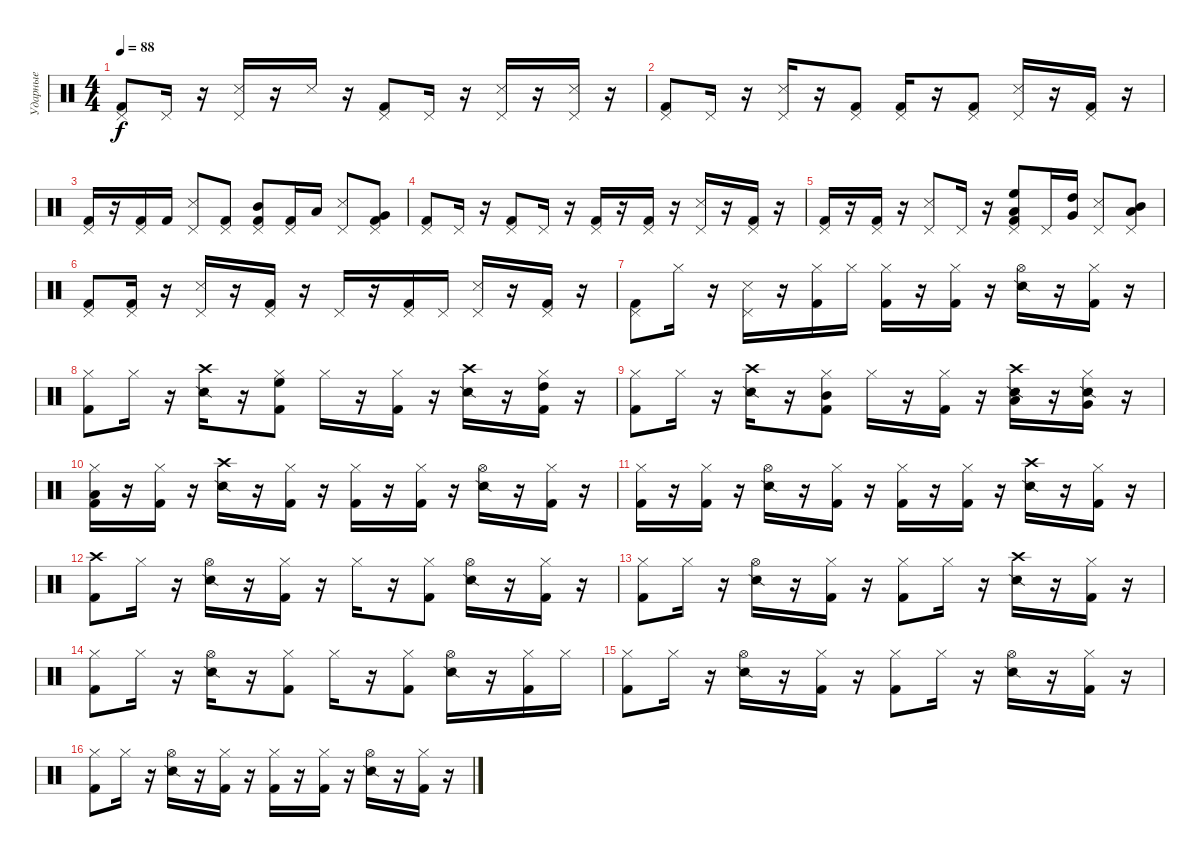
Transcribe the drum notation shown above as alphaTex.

\track ("Ударные" "Ударные") {instrument percussion}
\staff {score}
\articulation defaults
\ts (4 4)
\tempo 88
\clef neutral
\ks c
("Pedal Hi-Hat (hit)" "Kick (hit) 2").8{dy f} "Pedal Hi-Hat (hit)".16 r.16 ("Pedal Hi-Hat (hit)" "Snare (side stick) 3").16 r.16 "Snare (side stick) 3".16 r.16 ("Pedal Hi-Hat (hit)" "Kick (hit) 2").8 "Pedal Hi-Hat (hit)".16 r.16 ("Pedal Hi-Hat (hit)" "Snare (side stick) 3").16 r.16 ("Pedal Hi-Hat (hit)" "Snare (side stick) 3").16 r.16 |
("Kick (hit) 2" "Pedal Hi-Hat (hit)").8 "Pedal Hi-Hat (hit)".16 r.16 ("Pedal Hi-Hat (hit)" "Snare (side stick) 3").16 r.16 ("Pedal Hi-Hat (hit)" "Kick (hit) 2").8 ("Pedal Hi-Hat (hit)" "Kick (hit) 2").16 r.16 ("Kick (hit) 2" "Pedal Hi-Hat (hit)").8 ("Pedal Hi-Hat (hit)" "Snare (side stick) 3").16 r.16 ("Pedal Hi-Hat (hit)" "Kick (hit) 2").16 r.16 |
("Kick (hit) 2" "Pedal Hi-Hat (hit)").16 r.16 ("Pedal Hi-Hat (hit)" "Kick (hit) 2").16 "Kick (hit) 2".16 ("Pedal Hi-Hat (hit)" "Snare (side stick) 3").8 ("Pedal Hi-Hat (hit)" "Kick (hit) 2").8 ("Pedal Hi-Hat (hit)" "Kick (hit) 2" "Mid Tom (hit)").8 ("Pedal Hi-Hat (hit)" "Kick (hit) 2").16 "Low Tom (hit)".16 ("Pedal Hi-Hat (hit)" "Snare (side stick) 3").8 ("Pedal Hi-Hat (hit)" "Very Low Tom (hit)" "Kick (hit) 2").8 |
("Kick (hit) 2" "Pedal Hi-Hat (hit)").8 "Pedal Hi-Hat (hit)".16 r.16 ("Pedal Hi-Hat (hit)" "Kick (hit) 2").8 "Pedal Hi-Hat (hit)".16 r.16 ("Kick (hit) 2" "Pedal Hi-Hat (hit)").16 r.16 ("Kick (hit) 2" "Pedal Hi-Hat (hit)").16 r.16 ("Pedal Hi-Hat (hit)" "Snare (side stick) 3").16 r.16 ("Kick (hit) 2" "Pedal Hi-Hat (hit)").16 r.16 |
("Kick (hit) 2" "Pedal Hi-Hat (hit)").16 r.16 ("Kick (hit) 2" "Pedal Hi-Hat (hit)").16 r.16 ("Pedal Hi-Hat (hit)" "Snare (side stick) 3").8 "Pedal Hi-Hat (hit)".16 r.16 ("Pedal Hi-Hat (hit)" "Low Tom (hit)" "Kick (hit) 2" "High Floor Tom (hit)").8 "Pedal Hi-Hat (hit)".16 ("High Tom (hit)" "Very Low Tom (hit)").16 ("Pedal Hi-Hat (hit)" "Snare (side stick) 3").8 ("Pedal Hi-Hat (hit)" "Low Floor Tom (hit)" "Mid Tom (hit)").8 |
("Kick (hit) 2" "Pedal Hi-Hat (hit)").8 ("Kick (hit) 2" "Pedal Hi-Hat (hit)").16 r.16 ("Pedal Hi-Hat (hit)" "Snare (side stick) 3").16 r.16 ("Kick (hit) 2" "Pedal Hi-Hat (hit)").16 r.16 "Pedal Hi-Hat (hit)".16 r.16 ("Pedal Hi-Hat (hit)" "Kick (hit) 2").16 "Pedal Hi-Hat (hit)".16 ("Pedal Hi-Hat (hit)" "Snare (side stick) 3").16 r.16 ("Kick (hit) 2" "Pedal Hi-Hat (hit)").16 r.16 |
("Kick (hit) 2" "Pedal Hi-Hat (hit)").8 "Hi-Hat (closed)".16 r.16 ("Pedal Hi-Hat (hit)" "Snare (side stick) 3").16 r.16 ("Hi-Hat (closed)" "Kick (hit) 2").16 "Hi-Hat (closed)".16 ("Hi-Hat (closed)" "Kick (hit) 2").16 r.16 ("Hi-Hat (closed)" "Kick (hit) 2").16 r.16 ("Hi-Hat (open)" "Snare (side stick) 2").16 r.16 ("Hi-Hat (closed)" "Kick (hit) 2").16 r.16 |
("Hi-Hat (closed)" "Kick (hit) 2").8 "Hi-Hat (closed)".16 r.16 ("Crash high (hit)" "Snare (side stick) 2").16 r.16 ("Kick (hit) 2" "Hi-Hat (closed)" "High Floor Tom (hit)").8 "Hi-Hat (closed)".16 r.16 ("Kick (hit) 2" "Hi-Hat (closed)").16 r.16 ("Crash high (hit)" "Snare (side stick) 2").16 r.16 ("Kick (hit) 2" "Hi-Hat (closed)" "High Tom (hit)").16 r.16 |
("Hi-Hat (closed)" "Kick (hit) 2").8 "Hi-Hat (closed)".16 r.16 ("Crash high (hit)" "Snare (side stick) 2").16 r.16 ("Hi-Hat (closed)" "Kick (hit) 2" "Mid Tom (hit)").8 "Hi-Hat (closed)".16 r.16 ("Hi-Hat (closed)" "Kick (hit) 2").16 r.16 ("Crash high (hit)" "Low Tom (hit)" "Snare (side stick) 2").16 r.16 ("Hi-Hat (closed)" "Very Low Tom (hit)" "Snare (side stick) 2").16 r.16 |
("Low Floor Tom (hit)" "Hi-Hat (closed)" "Kick (hit) 2").16 r.16 ("Kick (hit) 2" "Hi-Hat (closed)").16 r.16 ("Crash high (hit)" "Snare (side stick) 2").16 r.16 ("Kick (hit) 2" "Hi-Hat (closed)").16 r.16 ("Kick (hit) 2" "Hi-Hat (closed)").16 r.16 ("Hi-Hat (closed)" "Kick (hit) 2").16 r.16 ("Hi-Hat (open)" "Snare (side stick) 2").16 r.16 ("Kick (hit) 2" "Hi-Hat (closed)").16 r.16 |
("Kick (hit) 2" "Hi-Hat (closed)").16 r.16 ("Kick (hit) 2" "Hi-Hat (closed)").16 r.16 ("Hi-Hat (open)" "Snare (side stick) 2").16 r.16 ("Kick (hit) 2" "Hi-Hat (closed)").16 r.16 ("Kick (hit) 2" "Hi-Hat (closed)").16 r.16 ("Kick (hit) 2" "Hi-Hat (closed)").16 r.16 ("Crash high (hit)" "Snare (side stick) 2").16 r.16 ("Kick (hit) 2" "Hi-Hat (closed)").16 r.16 |
("Kick (hit) 2" "Crash high (hit)").8 "Hi-Hat (closed)".16 r.16 ("Hi-Hat (open)" "Snare (side stick) 2").16 r.16 ("Hi-Hat (closed)" "Kick (hit) 2").16 r.16 "Hi-Hat (closed)".16 r.16 ("Kick (hit) 2" "Hi-Hat (closed)").8 ("Hi-Hat (open)" "Snare (side stick) 2").16 r.16 ("Kick (hit) 2" "Hi-Hat (closed)").16 r.16 |
("Kick (hit) 2" "Hi-Hat (closed)").8 "Hi-Hat (closed)".16 r.16 ("Hi-Hat (open)" "Snare (side stick) 2").16 r.16 ("Hi-Hat (closed)" "Kick (hit) 2").16 r.16 ("Hi-Hat (closed)" "Kick (hit) 2").8 "Hi-Hat (closed)".16 r.16 ("Crash high (hit)" "Snare (side stick) 2").16 r.16 ("Kick (hit) 2" "Hi-Hat (closed)").16 r.16 |
("Hi-Hat (closed)" "Kick (hit) 2").8 "Hi-Hat (closed)".16 r.16 ("Hi-Hat (open)" "Snare (side stick) 2").16 r.16 ("Hi-Hat (closed)" "Kick (hit) 2").8 "Hi-Hat (closed)".16 r.16 ("Kick (hit) 2" "Hi-Hat (closed)").8 ("Hi-Hat (open)" "Snare (side stick) 2").16 r.16 ("Kick (hit) 2" "Hi-Hat (closed)").16 "Hi-Hat (closed)".16 |
("Kick (hit) 2" "Hi-Hat (closed)").8 "Hi-Hat (closed)".16 r.16 ("Hi-Hat (open)" "Snare (side stick) 2").16 r.16 ("Hi-Hat (closed)" "Kick (hit) 2").16 r.16 ("Hi-Hat (closed)" "Kick (hit) 2").8 "Hi-Hat (closed)".16 r.16 ("Hi-Hat (open)" "Snare (side stick) 2").16 r.16 ("Kick (hit) 2" "Hi-Hat (closed)").16 r.16 |
("Hi-Hat (closed)" "Kick (hit) 2").8 "Hi-Hat (closed)".16 r.16 ("Hi-Hat (open)" "Snare (side stick) 2").16 r.16 ("Hi-Hat (closed)" "Kick (hit) 2").16 r.16 ("Hi-Hat (closed)" "Kick (hit) 2").16 r.16 ("Hi-Hat (closed)" "Kick (hit) 2").16 r.16 ("Hi-Hat (open)" "Snare (side stick) 2").16 r.16 ("Kick (hit) 2" "Hi-Hat (closed)").16 r.16
